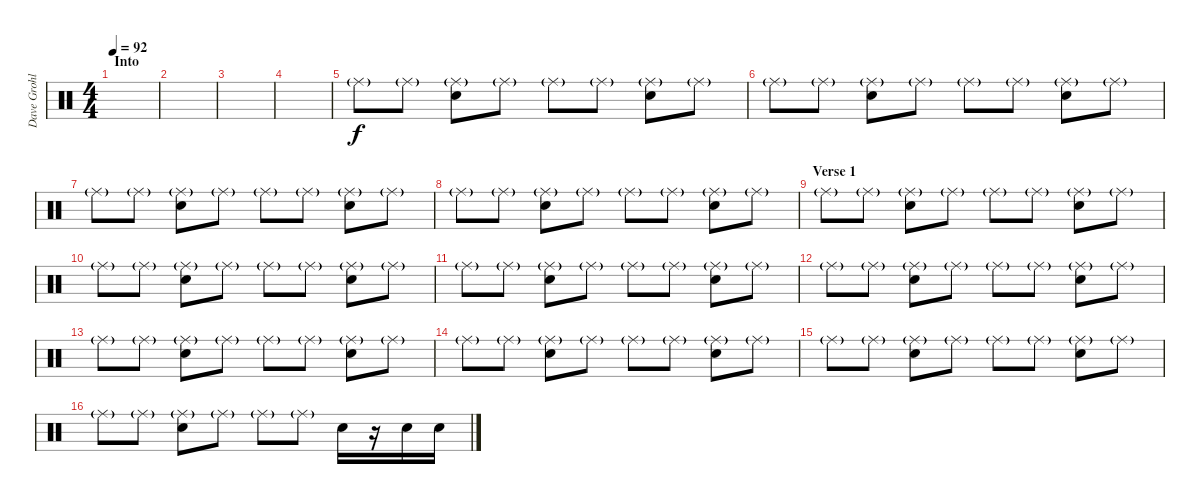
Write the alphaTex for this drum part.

\track ("Dave Grohl - Drums" "Dave Grohl") {instrument percussion}
\staff {score}
\articulation defaults
\ts (4 4)
\section ("" "Into")
\tempo 92
\clef neutral
\ks c
|
|
|
|
"Ride (middle)"{g}.8 "Ride (middle)"{g}.8 ("Ride (middle)"{g} "Electric Snare (hit)").8 "Ride (middle)"{g}.8 "Ride (middle)"{g}.8 "Ride (middle)"{g}.8 ("Ride (middle)"{g} "Electric Snare (hit)").8 "Ride (middle)"{g}.8 |
"Ride (middle)"{g}.8 "Ride (middle)"{g}.8 ("Ride (middle)"{g} "Electric Snare (hit)").8 "Ride (middle)"{g}.8 "Ride (middle)"{g}.8 "Ride (middle)"{g}.8 ("Ride (middle)"{g} "Electric Snare (hit)").8 "Ride (middle)"{g}.8 |
"Ride (middle)"{g}.8 "Ride (middle)"{g}.8 ("Ride (middle)"{g} "Electric Snare (hit)").8 "Ride (middle)"{g}.8 "Ride (middle)"{g}.8 "Ride (middle)"{g}.8 ("Ride (middle)"{g} "Electric Snare (hit)").8 "Ride (middle)"{g}.8 |
"Ride (middle)"{g}.8 "Ride (middle)"{g}.8 ("Ride (middle)"{g} "Electric Snare (hit)").8 "Ride (middle)"{g}.8 "Ride (middle)"{g}.8 "Ride (middle)"{g}.8 ("Ride (middle)"{g} "Electric Snare (hit)").8 "Ride (middle)"{g}.8 |
\section ("" "Verse 1")
"Ride (middle)"{g}.8 "Ride (middle)"{g}.8 ("Ride (middle)"{g} "Electric Snare (hit)").8 "Ride (middle)"{g}.8 "Ride (middle)"{g}.8 "Ride (middle)"{g}.8 ("Ride (middle)"{g} "Electric Snare (hit)").8 "Ride (middle)"{g}.8 |
"Ride (middle)"{g}.8 "Ride (middle)"{g}.8 ("Ride (middle)"{g} "Electric Snare (hit)").8 "Ride (middle)"{g}.8 "Ride (middle)"{g}.8 "Ride (middle)"{g}.8 ("Ride (middle)"{g} "Electric Snare (hit)").8 "Ride (middle)"{g}.8 |
"Ride (middle)"{g}.8 "Ride (middle)"{g}.8 ("Ride (middle)"{g} "Electric Snare (hit)").8 "Ride (middle)"{g}.8 "Ride (middle)"{g}.8 "Ride (middle)"{g}.8 ("Ride (middle)"{g} "Electric Snare (hit)").8 "Ride (middle)"{g}.8 |
"Ride (middle)"{g}.8 "Ride (middle)"{g}.8 ("Ride (middle)"{g} "Electric Snare (hit)").8 "Ride (middle)"{g}.8 "Ride (middle)"{g}.8 "Ride (middle)"{g}.8 ("Ride (middle)"{g} "Electric Snare (hit)").8 "Ride (middle)"{g}.8 |
"Ride (middle)"{g}.8 "Ride (middle)"{g}.8 ("Ride (middle)"{g} "Electric Snare (hit)").8 "Ride (middle)"{g}.8 "Ride (middle)"{g}.8 "Ride (middle)"{g}.8 ("Ride (middle)"{g} "Electric Snare (hit)").8 "Ride (middle)"{g}.8 |
"Ride (middle)"{g}.8 "Ride (middle)"{g}.8 ("Ride (middle)"{g} "Electric Snare (hit)").8 "Ride (middle)"{g}.8 "Ride (middle)"{g}.8 "Ride (middle)"{g}.8 ("Ride (middle)"{g} "Electric Snare (hit)").8 "Ride (middle)"{g}.8 |
"Ride (middle)"{g}.8 "Ride (middle)"{g}.8 ("Ride (middle)"{g} "Electric Snare (hit)").8 "Ride (middle)"{g}.8 "Ride (middle)"{g}.8 "Ride (middle)"{g}.8 ("Ride (middle)"{g} "Electric Snare (hit)").8 "Ride (middle)"{g}.8 |
"Ride (middle)"{g}.8 "Ride (middle)"{g}.8 ("Ride (middle)"{g} "Electric Snare (hit)").8 "Ride (middle)"{g}.8 "Ride (middle)"{g}.8 "Ride (middle)"{g}.8 "Electric Snare (hit)".16{dy f} r.16 "Electric Snare (hit)".16 "Electric Snare (hit)".16
